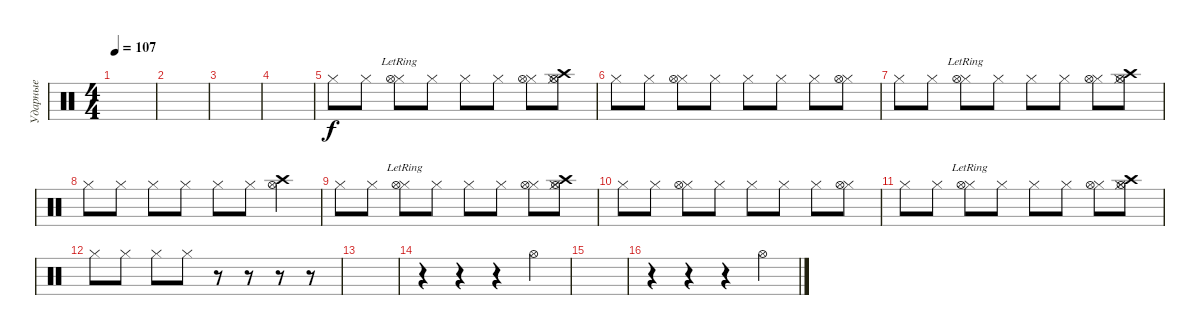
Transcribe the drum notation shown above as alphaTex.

\track ("Ударные" "Ударные") {instrument percussion}
\staff {score}
\articulation defaults
\ts (4 4)
\tempo 107
\clef neutral
\ks c
|
|
|
|
"Hi-Hat (closed)".8 "Hi-Hat (closed)".8 ("Hi-Hat (closed)" "Hi-Hat (open)"{lr}).8 "Hi-Hat (closed)".8 "Hi-Hat (closed)".8 "Hi-Hat (closed)".8 ("Hi-Hat (closed)" "Hi-Hat (open)").8 ("Hi-Hat (closed)" "Hi-Hat (open)" "Crash high (hit)").8 |
"Hi-Hat (closed)".8 "Hi-Hat (closed)".8 ("Hi-Hat (closed)" "Hi-Hat (open)").8 "Hi-Hat (closed)".8 "Hi-Hat (closed)".8 "Hi-Hat (closed)".8 "Hi-Hat (closed)".8 ("Hi-Hat (closed)" "Hi-Hat (open)").8 |
"Hi-Hat (closed)".8 "Hi-Hat (closed)".8 ("Hi-Hat (closed)" "Hi-Hat (open)"{lr}).8 "Hi-Hat (closed)".8 "Hi-Hat (closed)".8 "Hi-Hat (closed)".8 ("Hi-Hat (closed)" "Hi-Hat (open)").8 ("Hi-Hat (closed)" "Hi-Hat (open)" "Crash high (hit)").8 |
"Hi-Hat (closed)".8 "Hi-Hat (closed)".8 "Hi-Hat (closed)".8 "Hi-Hat (closed)".8 "Hi-Hat (closed)".8 "Hi-Hat (closed)".8 ("Hi-Hat (open)" "Crash high (hit)").4 |
"Hi-Hat (closed)".8 "Hi-Hat (closed)".8 ("Hi-Hat (closed)" "Hi-Hat (open)"{lr}).8 "Hi-Hat (closed)".8 "Hi-Hat (closed)".8 "Hi-Hat (closed)".8 ("Hi-Hat (closed)" "Hi-Hat (open)").8 ("Hi-Hat (closed)" "Hi-Hat (open)" "Crash high (hit)").8 |
"Hi-Hat (closed)".8 "Hi-Hat (closed)".8 ("Hi-Hat (closed)" "Hi-Hat (open)").8 "Hi-Hat (closed)".8 "Hi-Hat (closed)".8 "Hi-Hat (closed)".8 "Hi-Hat (closed)".8 ("Hi-Hat (closed)" "Hi-Hat (open)").8 |
"Hi-Hat (closed)".8 "Hi-Hat (closed)".8 ("Hi-Hat (closed)" "Hi-Hat (open)"{lr}).8 "Hi-Hat (closed)".8 "Hi-Hat (closed)".8 "Hi-Hat (closed)".8 ("Hi-Hat (closed)" "Hi-Hat (open)").8 ("Hi-Hat (closed)" "Hi-Hat (open)" "Crash high (hit)").8 |
"Hi-Hat (closed)".8 "Hi-Hat (closed)".8 "Hi-Hat (closed)".8 "Hi-Hat (closed)".8 r.8 r.8 r.8 r.8 |
|
r.4 r.4 r.4 "Hi-Hat (open)".4 |
|
r.4 r.4 r.4 "Hi-Hat (open)".4
